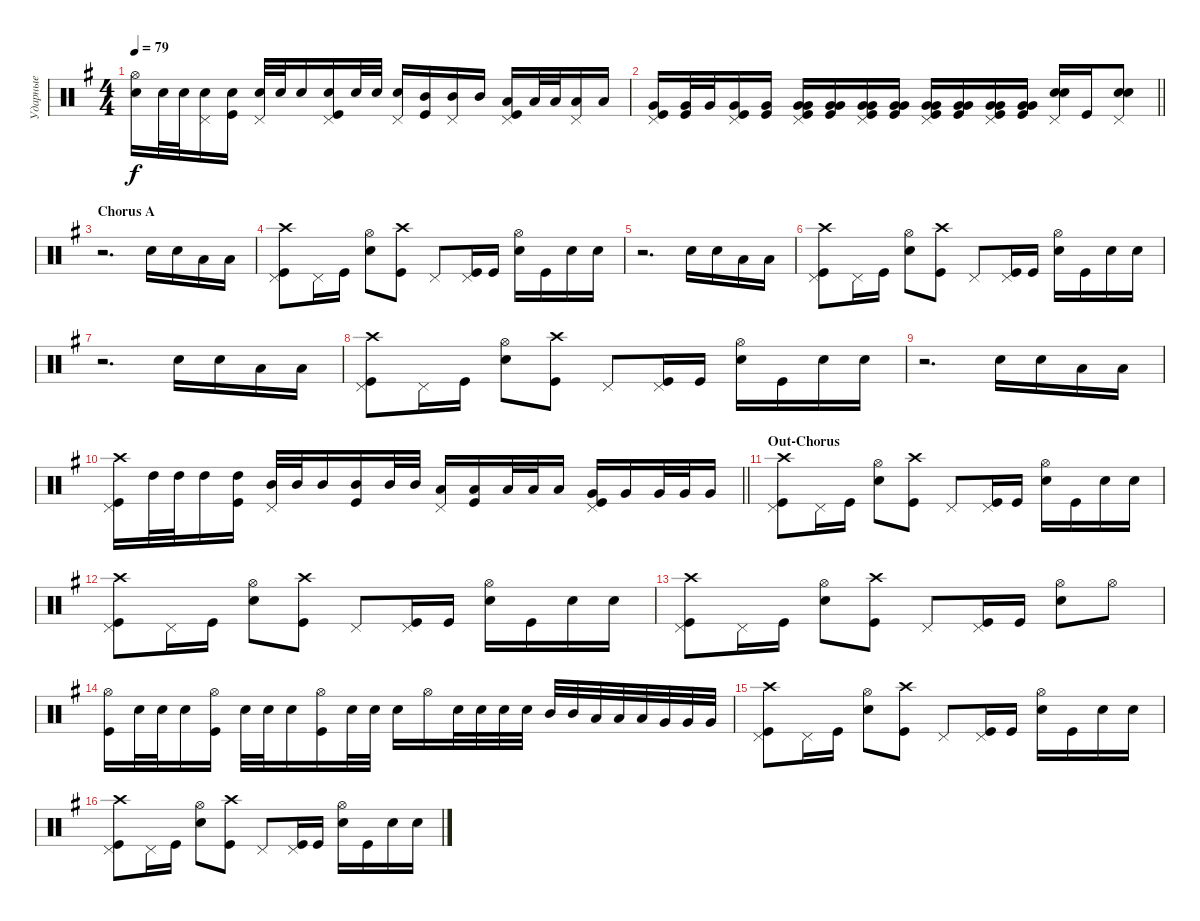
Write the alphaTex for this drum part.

\track ("Ударные" "Ударные") {instrument percussion}
\staff {score}
\articulation defaults
\ts (4 4)
\tempo 79
\clef neutral
\ks eminor
("Snare (hit) 2" "Hi-Hat (open)").16{dy f} "Snare (hit) 2".32 "Snare (hit) 2".32 ("Snare (hit) 2" "Pedal Hi-Hat (hit)").16 ("Snare (hit) 2" "Kick (hit)").16 ("Snare (hit) 2" "Pedal Hi-Hat (hit)").32 "Snare (hit) 2".32 "Snare (hit) 2".16 ("Snare (hit) 2" "Kick (hit)" "Pedal Hi-Hat (hit)").16 "Snare (hit) 2".32 "Snare (hit) 2".32 ("Snare (hit) 2" "Pedal Hi-Hat (hit)").16 ("Mid Tom (hit)" "Kick (hit)").16 ("Pedal Hi-Hat (hit)" "Mid Tom (hit)").16 "Mid Tom (hit)".16 ("Kick (hit)" "Pedal Hi-Hat (hit)" "Low Tom (hit)").16 "Low Tom (hit)".32 "Low Tom (hit)".32 ("Low Tom (hit)" "Pedal Hi-Hat (hit)").16 "Low Tom (hit)".16 |
\barLineRight lightlight
("Kick (hit)" "Very Low Tom (hit)" "Pedal Hi-Hat (hit)").16{bd 60} ("Kick (hit)" "Very Low Tom (hit)").32 "Very Low Tom (hit)".32 ("Very Low Tom (hit)" "Pedal Hi-Hat (hit)" "Kick (hit)").16{bd 60} ("Kick (hit)" "Very Low Tom (hit)").16{bd 60} ("Very Low Tom (hit)" "Kick (hit)" "Pedal Hi-Hat (hit)" "Very Low Tom (hit)").16{bd 60} ("Very Low Tom (hit)" "Very Low Tom (hit)" "Kick (hit)").16{bd 60} ("Very Low Tom (hit)" "Very Low Tom (hit)" "Kick (hit)" "Pedal Hi-Hat (hit)").16{bd 60} ("Very Low Tom (hit)" "Very Low Tom (hit)" "Kick (hit)").16{bd 60} ("Very Low Tom (hit)" "Very Low Tom (hit)" "Kick (hit)" "Pedal Hi-Hat (hit)").16{bd 60} ("Very Low Tom (hit)" "Kick (hit)" "Very Low Tom (hit)").16{bd 60} ("Very Low Tom (hit)" "Kick (hit)" "Pedal Hi-Hat (hit)" "Very Low Tom (hit)").16{bd 60} ("Very Low Tom (hit)" "Very Low Tom (hit)" "Kick (hit)").16{bd 60} ("Snare (hit) 2" "Pedal Hi-Hat (hit)" "Snare (hit) 2").16{bd 480} "Kick (hit)".16 ("Snare (hit) 2" "Snare (hit) 2" "Pedal Hi-Hat (hit)").8{bd 480} |
\section ("" "Chorus A")
r.2{d} "Snare (hit) 2".16{bd 240} "Snare (hit) 2".16 "Low Tom (hit)".16 "Low Tom (hit)".16 |
("Kick (hit)" "Crash high (hit)" "Pedal Hi-Hat (hit)").8 "Pedal Hi-Hat (hit)".16 "Kick (hit)".16 ("Snare (hit) 2" "Hi-Hat (open)").8 ("Kick (hit)" "Crash high (hit)").8 "Pedal Hi-Hat (hit)".8 ("Kick (hit)" "Pedal Hi-Hat (hit)").16 "Kick (hit)".16 ("Snare (hit) 2" "Hi-Hat (open)").16 "Kick (hit)".16 "Snare (hit) 2".16 "Snare (hit) 2".16 |
r.2{d} "Snare (hit) 2".16{bd 240} "Snare (hit) 2".16 "Low Tom (hit)".16 "Low Tom (hit)".16 |
("Kick (hit)" "Crash high (hit)" "Pedal Hi-Hat (hit)").8 "Pedal Hi-Hat (hit)".16 "Kick (hit)".16 ("Snare (hit) 2" "Hi-Hat (open)").8 ("Kick (hit)" "Crash high (hit)").8 "Pedal Hi-Hat (hit)".8 ("Kick (hit)" "Pedal Hi-Hat (hit)").16 "Kick (hit)".16 ("Snare (hit) 2" "Hi-Hat (open)").16 "Kick (hit)".16 "Snare (hit) 2".16 "Snare (hit) 2".16 |
r.2{d} "Snare (hit) 2".16 "Snare (hit) 2".16 "Low Tom (hit)".16 "Low Tom (hit)".16 |
("Kick (hit)" "Crash high (hit)" "Pedal Hi-Hat (hit)").8 "Pedal Hi-Hat (hit)".16 "Kick (hit)".16 ("Snare (hit) 2" "Hi-Hat (open)").8 ("Kick (hit)" "Crash high (hit)").8 "Pedal Hi-Hat (hit)".8 ("Kick (hit)" "Pedal Hi-Hat (hit)").16 "Kick (hit)".16 ("Snare (hit) 2" "Hi-Hat (open)").16 "Kick (hit)".16 "Snare (hit) 2".16 "Snare (hit) 2".16 |
r.2{d} "Snare (hit) 2".16{bd 240} "Snare (hit) 2".16 "Low Tom (hit)".16 "Low Tom (hit)".16 |
\barLineRight lightlight
("Kick (hit)" "Crash high (hit)" "Pedal Hi-Hat (hit)").16 "High Tom (hit)".32 "High Tom (hit)".32 "High Tom (hit)".16 ("Kick (hit)" "High Tom (hit)").16 ("Pedal Hi-Hat (hit)" "Mid Tom (hit)").32 "Mid Tom (hit)".32 "Mid Tom (hit)".16 ("Mid Tom (hit)" "Kick (hit)").16 "Mid Tom (hit)".32 "Mid Tom (hit)".32 ("Pedal Hi-Hat (hit)" "Low Tom (hit)").16 ("Kick (hit)" "Low Tom (hit)").16 "Low Tom (hit)".32 "Low Tom (hit)".32 "Low Tom (hit)".16 ("Very Low Tom (hit)" "Kick (hit)" "Pedal Hi-Hat (hit)").16 "Very Low Tom (hit)".16 "Very Low Tom (hit)".32 "Very Low Tom (hit)".32 "Very Low Tom (hit)".16 |
\section ("" "Out-Chorus")
("Kick (hit)" "Crash high (hit)" "Pedal Hi-Hat (hit)").8 "Pedal Hi-Hat (hit)".16 "Kick (hit)".16 ("Snare (hit) 2" "Hi-Hat (open)").8 ("Kick (hit)" "Crash high (hit)").8 "Pedal Hi-Hat (hit)".8 ("Kick (hit)" "Pedal Hi-Hat (hit)").16 "Kick (hit)".16 ("Snare (hit) 2" "Hi-Hat (open)").16 "Kick (hit)".16 "Snare (hit) 2".16 "Snare (hit) 2".16 |
("Kick (hit)" "Crash high (hit)" "Pedal Hi-Hat (hit)").8 "Pedal Hi-Hat (hit)".16 "Kick (hit)".16 ("Snare (hit) 2" "Hi-Hat (open)").8 ("Kick (hit)" "Crash high (hit)").8 "Pedal Hi-Hat (hit)".8 ("Kick (hit)" "Pedal Hi-Hat (hit)").16 "Kick (hit)".16 ("Snare (hit) 2" "Hi-Hat (open)").16 "Kick (hit)".16 "Snare (hit) 2".16 "Snare (hit) 2".16 |
("Kick (hit)" "Crash high (hit)" "Pedal Hi-Hat (hit)").8 "Pedal Hi-Hat (hit)".16 "Kick (hit)".16 ("Snare (hit) 2" "Hi-Hat (open)").8 ("Kick (hit)" "Crash high (hit)").8 "Pedal Hi-Hat (hit)".8 ("Kick (hit)" "Pedal Hi-Hat (hit)").16 "Kick (hit)".16 ("Hi-Hat (open)" "Snare (hit) 2").8 "Hi-Hat (open)".8 |
("Kick (hit)" "Hi-Hat (open)").16 "Snare (hit) 2".32 "Snare (hit) 2".32 "Snare (hit) 2".16 ("Kick (hit)" "Hi-Hat (open)").16 "Snare (hit) 2".32 "Snare (hit) 2".32 "Snare (hit) 2".16 ("Kick (hit)" "Hi-Hat (open)").16 "Snare (hit) 2".32 "Snare (hit) 2".32 "Snare (hit) 2".16 "Hi-Hat (open)".16 "Snare (hit) 2".32 "Snare (hit) 2".32 "Snare (hit) 2".32 "Snare (hit) 2".32 "Mid Tom (hit)".32 "Mid Tom (hit)".32 "Low Tom (hit)".32 "Low Tom (hit)".32 "Low Tom (hit)".32 "Very Low Tom (hit)".32 "Very Low Tom (hit)".32 "Very Low Tom (hit)".32 |
("Kick (hit)" "Crash high (hit)" "Pedal Hi-Hat (hit)").8 "Pedal Hi-Hat (hit)".16 "Kick (hit)".16 ("Snare (hit) 2" "Hi-Hat (open)").8 ("Kick (hit)" "Crash high (hit)").8 "Pedal Hi-Hat (hit)".8 ("Pedal Hi-Hat (hit)" "Kick (hit)").16 "Kick (hit)".16 ("Snare (hit) 2" "Hi-Hat (open)").16 "Kick (hit)".16 "Snare (hit) 2".16 "Snare (hit) 2".16 |
("Kick (hit)" "Crash high (hit)" "Pedal Hi-Hat (hit)").8 "Pedal Hi-Hat (hit)".16 "Kick (hit)".16 ("Snare (hit) 2" "Hi-Hat (open)").8 ("Kick (hit)" "Crash high (hit)").8 "Pedal Hi-Hat (hit)".8 ("Kick (hit)" "Pedal Hi-Hat (hit)").16 "Kick (hit)".16 ("Snare (hit) 2" "Hi-Hat (open)").16 "Kick (hit)".16 "Snare (hit) 2".16 "Snare (hit) 2".16
